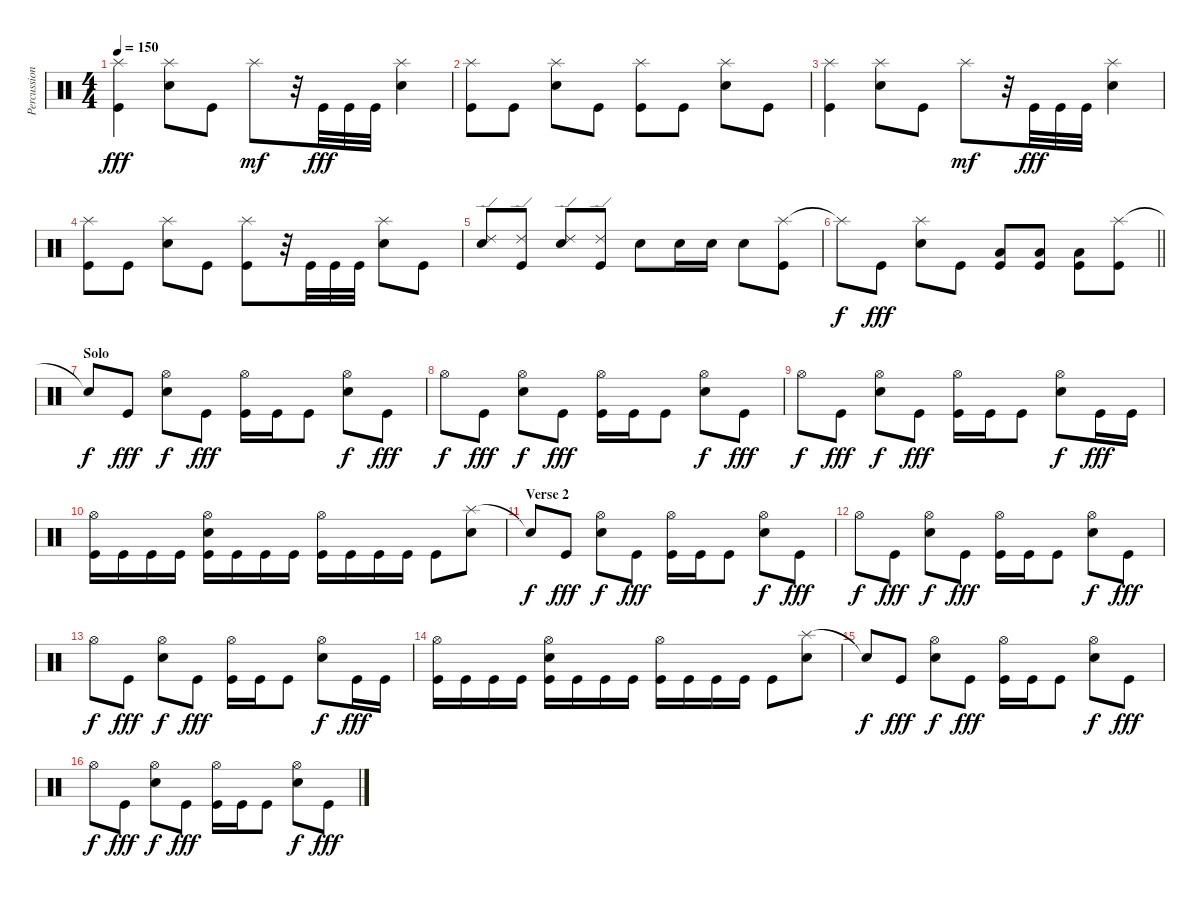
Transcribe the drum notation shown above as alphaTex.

\track ("Percussion" "Percussion") {instrument percussion}
\staff {score}
\articulation defaults
\ts (4 4)
\tempo 150
\clef neutral
\ks c
("Splash (hit)" "Kick (hit)").4{dy fff} ("Splash (hit)" "Electric Snare (hit)").8 "Kick (hit)".8 "Splash (hit)".8{dy mf} r.32 "Kick (hit)".32{dy fff} "Kick (hit)".32 "Kick (hit)".32 ("Splash (hit)" "Electric Snare (hit)").4 |
("Splash (hit)" "Kick (hit)").8 "Kick (hit)".8 ("Splash (hit)" "Electric Snare (hit)").8 "Kick (hit)".8 ("Splash (hit)" "Kick (hit)").8 "Kick (hit)".8 ("Splash (hit)" "Electric Snare (hit)").8 "Kick (hit)".8 |
("Splash (hit)" "Kick (hit)").4 ("Splash (hit)" "Electric Snare (hit)").8 "Kick (hit)".8 "Splash (hit)".8{dy mf} r.32 "Kick (hit)".32{dy fff} "Kick (hit)".32 "Kick (hit)".32 ("Splash (hit)" "Electric Snare (hit)").4 |
("Splash (hit)" "Kick (hit)").8 "Kick (hit)".8 ("Splash (hit)" "Electric Snare (hit)").8 "Kick (hit)".8 ("Splash (hit)" "Kick (hit)").8 r.32 "Kick (hit)".32 "Kick (hit)".32 "Kick (hit)".32 ("Splash (hit)" "Electric Snare (hit)").8 "Kick (hit)".8 |
("Ride (edge) 2" "Electric Snare (hit)").8 ("Ride (edge) 2" "Kick (hit)").8 ("Ride (edge) 2" "Electric Snare (hit)").8 ("Ride (edge) 2" "Kick (hit)").8 "Electric Snare (hit)".8 "Electric Snare (hit)".16 "Electric Snare (hit)".16 "Electric Snare (hit)".8 ("Splash (hit)" "Kick (hit)").8 |
\barLineRight lightlight "Splash (hit)"{t}.8{dy f} "Kick (hit)".8{dy fff}
("Splash (hit)" "Electric Snare (hit)").8 "Kick (hit)".8 ("Low Floor Tom (hit)" "Kick (hit)").8 ("Low Floor Tom (hit)" "Kick (hit)").8 ("Low Floor Tom (hit)" "Kick (hit)").8 ("Splash (hit)" "Kick (hit)").8 |
\section ("" "Solo")
"Snare (hit)"{t}.8{dy f} "Kick (hit)".8{dy fff} ("Hi-Hat (open)" "Electric Snare (hit)").8{dy f} "Kick (hit)".8{dy fff} ("Hi-Hat (open)" "Kick (hit)").16 "Kick (hit)".16 "Kick (hit)".8 ("Hi-Hat (open)" "Electric Snare (hit)").8{dy f} "Kick (hit)".8{dy fff} |
"Hi-Hat (open)".8{dy f} "Kick (hit)".8{dy fff} ("Hi-Hat (open)" "Electric Snare (hit)").8{dy f} "Kick (hit)".8{dy fff} ("Hi-Hat (open)" "Kick (hit)").16 "Kick (hit)".16 "Kick (hit)".8 ("Hi-Hat (open)" "Electric Snare (hit)").8{dy f} "Kick (hit)".8{dy fff} |
"Hi-Hat (open)".8{dy f} "Kick (hit)".8{dy fff} ("Hi-Hat (open)" "Electric Snare (hit)").8{dy f} "Kick (hit)".8{dy fff} ("Hi-Hat (open)" "Kick (hit)").16 "Kick (hit)".16 "Kick (hit)".8 ("Hi-Hat (open)" "Electric Snare (hit)").8{dy f} "Kick (hit)".16{dy fff} "Kick (hit)".16 |
("Hi-Hat (open)" "Kick (hit)").16 "Kick (hit)".16 "Kick (hit)".16 "Kick (hit)".16 ("Hi-Hat (open)" "Electric Snare (hit)" "Kick (hit)").16 "Kick (hit)".16 "Kick (hit)".16 "Kick (hit)".16 ("Hi-Hat (open)" "Kick (hit)").16 "Kick (hit)".16 "Kick (hit)".16 "Kick (hit)".16 "Kick (hit)".8 ("Splash (hit)" "Electric Snare (hit)").8 |
\section ("" "Verse 2")
"Snare (hit)"{t}.8{dy f} "Kick (hit)".8{dy fff} ("Hi-Hat (open)" "Electric Snare (hit)").8{dy f} "Kick (hit)".8{dy fff} ("Hi-Hat (open)" "Kick (hit)").16 "Kick (hit)".16 "Kick (hit)".8 ("Hi-Hat (open)" "Electric Snare (hit)").8{dy f} "Kick (hit)".8{dy fff} |
"Hi-Hat (open)".8{dy f} "Kick (hit)".8{dy fff} ("Hi-Hat (open)" "Electric Snare (hit)").8{dy f} "Kick (hit)".8{dy fff} ("Hi-Hat (open)" "Kick (hit)").16 "Kick (hit)".16 "Kick (hit)".8 ("Hi-Hat (open)" "Electric Snare (hit)").8{dy f} "Kick (hit)".8{dy fff} |
"Hi-Hat (open)".8{dy f} "Kick (hit)".8{dy fff} ("Hi-Hat (open)" "Electric Snare (hit)").8{dy f} "Kick (hit)".8{dy fff} ("Hi-Hat (open)" "Kick (hit)").16 "Kick (hit)".16 "Kick (hit)".8 ("Hi-Hat (open)" "Electric Snare (hit)").8{dy f} "Kick (hit)".16{dy fff} "Kick (hit)".16 |
("Hi-Hat (open)" "Kick (hit)").16 "Kick (hit)".16 "Kick (hit)".16 "Kick (hit)".16 ("Hi-Hat (open)" "Electric Snare (hit)" "Kick (hit)").16 "Kick (hit)".16 "Kick (hit)".16 "Kick (hit)".16 ("Hi-Hat (open)" "Kick (hit)").16 "Kick (hit)".16 "Kick (hit)".16 "Kick (hit)".16 "Kick (hit)".8 ("Splash (hit)" "Electric Snare (hit)").8 |
"Snare (hit)"{t}.8{dy f} "Kick (hit)".8{dy fff} ("Hi-Hat (open)" "Electric Snare (hit)").8{dy f} "Kick (hit)".8{dy fff} ("Hi-Hat (open)" "Kick (hit)").16 "Kick (hit)".16 "Kick (hit)".8 ("Hi-Hat (open)" "Electric Snare (hit)").8{dy f} "Kick (hit)".8{dy fff} |
"Hi-Hat (open)".8{dy f} "Kick (hit)".8{dy fff} ("Hi-Hat (open)" "Electric Snare (hit)").8{dy f} "Kick (hit)".8{dy fff} ("Hi-Hat (open)" "Kick (hit)").16 "Kick (hit)".16 "Kick (hit)".8 ("Hi-Hat (open)" "Electric Snare (hit)").8{dy f} "Kick (hit)".8{dy fff}
